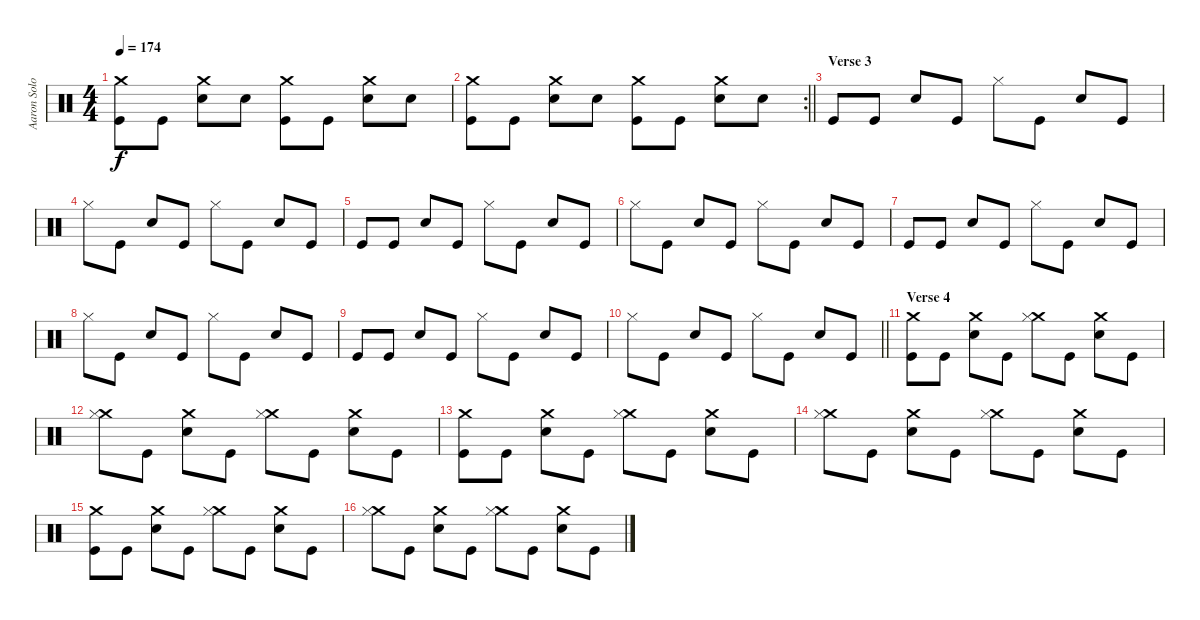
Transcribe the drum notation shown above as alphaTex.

\track ("Aaron Solowoniuk" "Aaron Solo") {instrument percussion}
\staff {score}
\articulation defaults
\ts (4 4)
\tempo 174
\clef neutral
\ks c
("Kick (hit)" "Crash medium (hit)").8{dy f} "Kick (hit)".8 ("Snare (hit) 2" "Crash medium (hit)").8 "Snare (hit) 2".8 ("Kick (hit)" "Crash medium (hit)").8 "Kick (hit)".8 ("Snare (hit) 2" "Crash medium (hit)").8 "Snare (hit) 2".8 |
\rc 2
\barLineRight lightlight
("Kick (hit)" "Crash medium (hit)").8 "Kick (hit)".8 ("Snare (hit) 2" "Crash medium (hit)").8 "Snare (hit) 2".8 ("Kick (hit)" "Crash medium (hit)").8 "Kick (hit)".8 ("Snare (hit) 2" "Crash medium (hit)").8 "Snare (hit) 2".8 |
\section ("" "Verse 3")
"Kick (hit)".8 "Kick (hit)".8 "Electric Snare (hit)".8 "Kick (hit)".8 "Hi-Hat (closed)".8 "Kick (hit)".8 "Electric Snare (hit)".8 "Kick (hit)".8 |
"Hi-Hat (closed)".8 "Kick (hit)".8 "Electric Snare (hit)".8 "Kick (hit)".8 "Hi-Hat (closed)".8 "Kick (hit)".8 "Electric Snare (hit)".8 "Kick (hit)".8 |
"Kick (hit)".8 "Kick (hit)".8 "Electric Snare (hit)".8 "Kick (hit)".8 "Hi-Hat (closed)".8 "Kick (hit)".8 "Electric Snare (hit)".8 "Kick (hit)".8 |
"Hi-Hat (closed)".8 "Kick (hit)".8 "Electric Snare (hit)".8 "Kick (hit)".8 "Hi-Hat (closed)".8 "Kick (hit)".8 "Electric Snare (hit)".8 "Kick (hit)".8 |
"Kick (hit)".8 "Kick (hit)".8 "Electric Snare (hit)".8 "Kick (hit)".8 "Hi-Hat (closed)".8 "Kick (hit)".8 "Electric Snare (hit)".8 "Kick (hit)".8 |
"Hi-Hat (closed)".8 "Kick (hit)".8 "Electric Snare (hit)".8 "Kick (hit)".8 "Hi-Hat (closed)".8 "Kick (hit)".8 "Electric Snare (hit)".8 "Kick (hit)".8 |
"Kick (hit)".8 "Kick (hit)".8 "Electric Snare (hit)".8 "Kick (hit)".8 "Hi-Hat (closed)".8 "Kick (hit)".8 "Electric Snare (hit)".8 "Kick (hit)".8 |
\barLineRight lightlight "Hi-Hat (closed)".8 "Kick (hit)".8 "Electric Snare (hit)".8 "Kick (hit)".8 "Hi-Hat (closed)".8 "Kick (hit)".8 "Electric Snare (hit)".8 "Kick (hit)".8
|
\section ("" "Verse 4")
("Kick (hit)" "Crash medium (hit)").8 "Kick (hit)".8 ("Crash medium (hit)" "Electric Snare (hit)").8 "Kick (hit)".8 ("Crash medium (hit)" "Hi-Hat (closed)").8 "Kick (hit)".8 ("Crash medium (hit)" "Electric Snare (hit)").8 "Kick (hit)".8 |
("Crash medium (hit)" "Hi-Hat (closed)").8 "Kick (hit)".8 ("Crash medium (hit)" "Electric Snare (hit)").8 "Kick (hit)".8 ("Crash medium (hit)" "Hi-Hat (closed)").8 "Kick (hit)".8 ("Crash medium (hit)" "Electric Snare (hit)").8 "Kick (hit)".8 |
("Kick (hit)" "Crash medium (hit)").8 "Kick (hit)".8 ("Crash medium (hit)" "Electric Snare (hit)").8 "Kick (hit)".8 ("Crash medium (hit)" "Hi-Hat (closed)").8 "Kick (hit)".8 ("Crash medium (hit)" "Electric Snare (hit)").8 "Kick (hit)".8 |
("Crash medium (hit)" "Hi-Hat (closed)").8 "Kick (hit)".8 ("Crash medium (hit)" "Electric Snare (hit)").8 "Kick (hit)".8 ("Crash medium (hit)" "Hi-Hat (closed)").8 "Kick (hit)".8 ("Crash medium (hit)" "Electric Snare (hit)").8 "Kick (hit)".8 |
("Kick (hit)" "Crash medium (hit)").8 "Kick (hit)".8 ("Crash medium (hit)" "Electric Snare (hit)").8 "Kick (hit)".8 ("Crash medium (hit)" "Hi-Hat (closed)").8 "Kick (hit)".8 ("Crash medium (hit)" "Electric Snare (hit)").8 "Kick (hit)".8 |
("Crash medium (hit)" "Hi-Hat (closed)").8 "Kick (hit)".8 ("Crash medium (hit)" "Electric Snare (hit)").8 "Kick (hit)".8 ("Crash medium (hit)" "Hi-Hat (closed)").8 "Kick (hit)".8 ("Crash medium (hit)" "Electric Snare (hit)").8 "Kick (hit)".8
